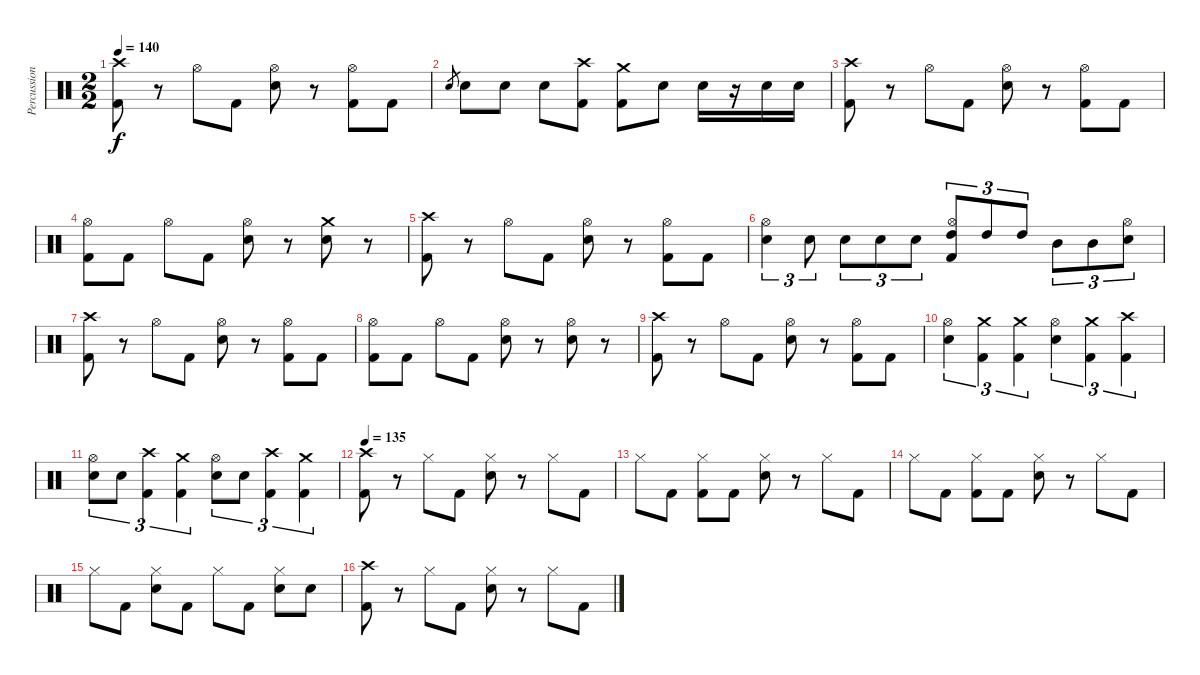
\track ("Percussion(Satish)" "Percussion") {instrument percussion}
\staff {score}
\articulation defaults
\ts (2 2)
\tempo 140
\clef neutral
\ks c
("Crash high (hit)" "Kick (hit) 2").8{dy f} r.8 "Hi-Hat (open)".8 "Kick (hit) 2".8 ("Hi-Hat (open)" "Snare (hit) 2").8 r.8 ("Hi-Hat (open)" "Kick (hit) 2").8 "Kick (hit) 2".8 |
"Snare (hit) 2".8{gr} "Snare (hit) 2".8 "Snare (hit) 2".8 "Snare (hit) 2".8 ("Crash high (hit)" "Kick (hit) 2").8 ("Crash medium (hit)" "Kick (hit) 2").8 "Snare (hit) 2".8 "Snare (hit) 2".16 r.16 "Snare (hit) 2".16 "Snare (hit) 2".16 |
("Crash high (hit)" "Kick (hit) 2").8 r.8 "Hi-Hat (open)".8 "Kick (hit) 2".8 ("Hi-Hat (open)" "Snare (hit) 2").8 r.8 ("Hi-Hat (open)" "Kick (hit) 2").8 "Kick (hit) 2".8 |
("Hi-Hat (open)" "Kick (hit) 2").8 "Kick (hit) 2".8 "Hi-Hat (open)".8 "Kick (hit) 2".8 ("Hi-Hat (open)" "Snare (hit) 2").8 r.8 ("Crash medium (hit)" "Snare (hit) 2").8 r.8 |
("Crash high (hit)" "Kick (hit) 2").8 r.8 "Hi-Hat (open)".8 "Kick (hit) 2".8 ("Hi-Hat (open)" "Snare (hit) 2").8 r.8 ("Hi-Hat (open)" "Kick (hit) 2").8 "Kick (hit) 2".8 |
("Hi-Hat (open)" "Snare (hit) 2").4{tu (3 2)} "Snare (hit) 2".8{tu (3 2)} "Snare (hit) 2".8{tu (3 2)} "Snare (hit) 2".8{tu (3 2)} "Snare (hit) 2".8{tu (3 2)} ("Hi-Hat (open)" "High Tom (hit)" "Kick (hit) 2").8{tu (3 2)} "High Tom (hit)".8{tu (3 2)} "High Tom (hit)".8{tu (3 2)} "Mid Tom (hit)".8{tu (3 2)} "Mid Tom (hit)".8{tu (3 2)} ("Hi-Hat (open)" "Snare (hit) 2").8{tu (3 2)} |
("Crash high (hit)" "Kick (hit) 2").8 r.8 "Hi-Hat (open)".8 "Kick (hit) 2".8 ("Hi-Hat (open)" "Snare (hit) 2").8 r.8 ("Hi-Hat (open)" "Kick (hit) 2").8 "Kick (hit) 2".8 |
("Hi-Hat (open)" "Kick (hit) 2").8 "Kick (hit) 2".8 "Hi-Hat (open)".8 "Kick (hit) 2".8 ("Hi-Hat (open)" "Snare (hit) 2").8 r.8 ("Hi-Hat (open)" "Snare (hit) 2").8 r.8 |
("Crash high (hit)" "Kick (hit) 2").8 r.8 "Hi-Hat (open)".8 "Kick (hit) 2".8 ("Hi-Hat (open)" "Snare (hit) 2").8 r.8 ("Hi-Hat (open)" "Kick (hit) 2").8 "Kick (hit) 2".8 |
("Hi-Hat (open)" "Snare (hit) 2").4{tu (3 2)} ("Crash medium (hit)" "Kick (hit) 2").4{tu (3 2)} ("Crash medium (hit)" "Kick (hit) 2").4{tu (3 2)} ("Hi-Hat (open)" "Snare (hit) 2").4{tu (3 2)} ("Crash medium (hit)" "Kick (hit) 2").4{tu (3 2)} ("Crash high (hit)" "Kick (hit) 2").4{tu (3 2)} |
("Hi-Hat (open)" "Snare (hit) 2").8{tu (3 2)} "Snare (hit) 2".8{tu (3 2)} ("Crash high (hit)" "Kick (hit) 2").4{tu (3 2)} ("Crash medium (hit)" "Kick (hit) 2").4{tu (3 2)} ("Hi-Hat (open)" "Snare (hit) 2").8{tu (3 2)} "Snare (hit) 2".8{tu (3 2)} ("Crash high (hit)" "Kick (hit) 2").4{tu (3 2)} ("Crash medium (hit)" "Kick (hit) 2").4{tu (3 2)} |
\tempo 135
("Crash high (hit)" "Kick (hit) 2").8 r.8 "Hi-Hat (closed)".8 "Kick (hit) 2".8 ("Hi-Hat (closed)" "Snare (hit) 2").8 r.8 "Hi-Hat (closed)".8 "Kick (hit) 2".8 |
"Hi-Hat (closed)".8 "Kick (hit) 2".8 ("Hi-Hat (closed)" "Kick (hit) 2").8 "Kick (hit) 2".8 ("Hi-Hat (closed)" "Snare (hit) 2").8 r.8 "Hi-Hat (closed)".8 "Kick (hit) 2".8 |
"Hi-Hat (closed)".8 "Kick (hit) 2".8 ("Hi-Hat (closed)" "Kick (hit) 2").8 "Kick (hit) 2".8 ("Hi-Hat (closed)" "Snare (hit) 2").8 r.8 "Hi-Hat (closed)".8 "Kick (hit) 2".8 |
"Hi-Hat (closed)".8 "Kick (hit) 2".8 ("Hi-Hat (closed)" "Snare (hit) 2").8 "Kick (hit) 2".8 "Hi-Hat (closed)".8 "Kick (hit) 2".8 ("Hi-Hat (closed)" "Snare (hit) 2").8 "Snare (hit) 2".8 |
("Crash high (hit)" "Kick (hit) 2").8 r.8 "Hi-Hat (closed)".8 "Kick (hit) 2".8 ("Hi-Hat (closed)" "Snare (hit) 2").8 r.8 "Hi-Hat (closed)".8 "Kick (hit) 2".8
